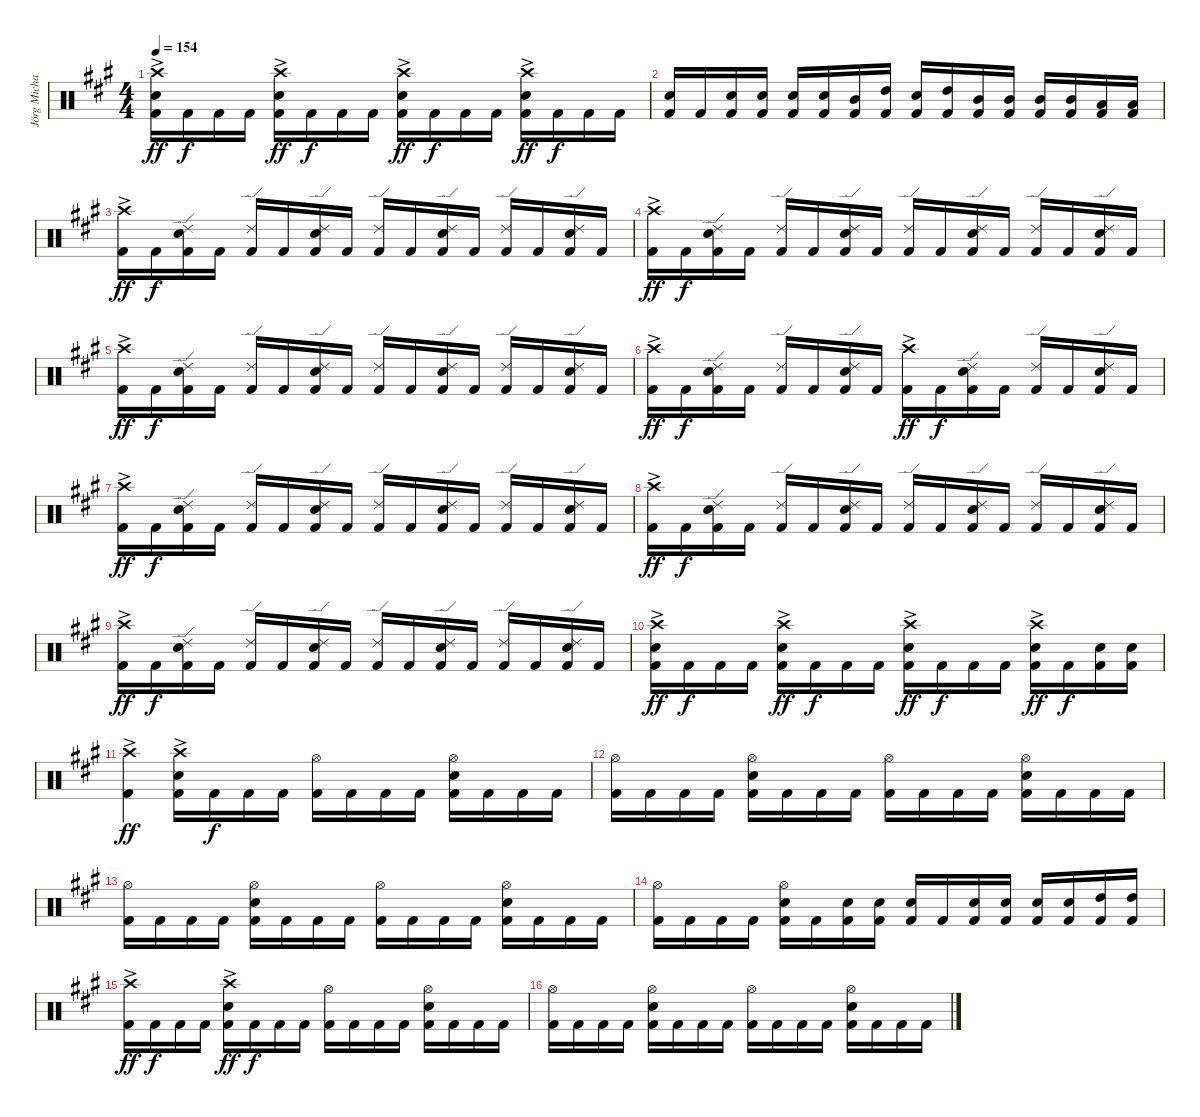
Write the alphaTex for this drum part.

\track ("Jörg Michael" "Jörg Micha") {instrument percussion}
\staff {score}
\articulation defaults
\ts (4 4)
\tempo 154
\clef neutral
\ks a
("Crash high (hit)"{ac} "Kick (hit) 2"{ac} "Electric Snare (hit)"{ac}).16{dy ff} "Kick (hit) 2".16{dy f} "Kick (hit) 2".16 "Kick (hit) 2".16 ("Electric Snare (hit)"{ac} "Kick (hit) 2"{ac} "Crash high (hit)"{ac}).16{dy ff} "Kick (hit) 2".16{dy f} "Kick (hit) 2".16 "Kick (hit) 2".16 ("Electric Snare (hit)"{ac} "Kick (hit) 2"{ac} "Crash high (hit)"{ac}).16{dy ff} "Kick (hit) 2".16{dy f} "Kick (hit) 2".16 "Kick (hit) 2".16 ("Electric Snare (hit)"{ac} "Kick (hit) 2"{ac} "Crash high (hit)"{ac}).16{dy ff} "Kick (hit) 2".16{dy f} "Kick (hit) 2".16 "Kick (hit) 2".16 |
("Electric Snare (hit)" "Kick (hit) 2").16 "Kick (hit) 2".16 ("Electric Snare (hit)" "Kick (hit) 2").16 ("Electric Snare (hit)" "Kick (hit) 2").16 ("Electric Snare (hit)" "Kick (hit) 2").16 ("Electric Snare (hit)" "Kick (hit) 2").16 ("Mid Tom (hit)" "Kick (hit) 2").16 ("High Tom (hit)" "Kick (hit) 2").16 ("Electric Snare (hit)" "Kick (hit) 2").16 ("High Tom (hit)" "Kick (hit) 2").16 ("Mid Tom (hit)" "Kick (hit) 2").16 ("Mid Tom (hit)" "Kick (hit) 2").16 ("Mid Tom (hit)" "Kick (hit) 2").16 ("Mid Tom (hit)" "Kick (hit) 2").16 ("Low Tom (hit)" "Kick (hit) 2").16 ("Low Tom (hit)" "Kick (hit) 2").16 |
("Crash high (hit)"{ac} "Kick (hit) 2"{ac}).16{dy ff} "Kick (hit) 2".16{dy f} ("Ride (edge) 2" "Kick (hit) 2" "Electric Snare (hit)").16 "Kick (hit) 2".16 ("Ride (edge) 2" "Kick (hit) 2").16 "Kick (hit) 2".16 ("Ride (edge) 2" "Kick (hit) 2" "Electric Snare (hit)").16 "Kick (hit) 2".16 ("Kick (hit) 2" "Ride (edge) 2").16 "Kick (hit) 2".16 ("Ride (edge) 2" "Kick (hit) 2" "Electric Snare (hit)").16 "Kick (hit) 2".16 ("Kick (hit) 2" "Ride (edge) 2").16 "Kick (hit) 2".16 ("Ride (edge) 2" "Kick (hit) 2" "Electric Snare (hit)").16 "Kick (hit) 2".16 |
("Crash high (hit)"{ac} "Kick (hit) 2"{ac}).16{dy ff} "Kick (hit) 2".16{dy f} ("Ride (edge) 2" "Kick (hit) 2" "Electric Snare (hit)").16 "Kick (hit) 2".16 ("Ride (edge) 2" "Kick (hit) 2").16 "Kick (hit) 2".16 ("Ride (edge) 2" "Kick (hit) 2" "Electric Snare (hit)").16 "Kick (hit) 2".16 ("Kick (hit) 2" "Ride (edge) 2").16 "Kick (hit) 2".16 ("Ride (edge) 2" "Kick (hit) 2" "Electric Snare (hit)").16 "Kick (hit) 2".16 ("Kick (hit) 2" "Ride (edge) 2").16 "Kick (hit) 2".16 ("Ride (edge) 2" "Kick (hit) 2" "Electric Snare (hit)").16 "Kick (hit) 2".16 |
("Crash high (hit)"{ac} "Kick (hit) 2"{ac}).16{dy ff} "Kick (hit) 2".16{dy f} ("Ride (edge) 2" "Kick (hit) 2" "Electric Snare (hit)").16 "Kick (hit) 2".16 ("Ride (edge) 2" "Kick (hit) 2").16 "Kick (hit) 2".16 ("Ride (edge) 2" "Kick (hit) 2" "Electric Snare (hit)").16 "Kick (hit) 2".16 ("Kick (hit) 2" "Ride (edge) 2").16 "Kick (hit) 2".16 ("Ride (edge) 2" "Kick (hit) 2" "Electric Snare (hit)").16 "Kick (hit) 2".16 ("Kick (hit) 2" "Ride (edge) 2").16 "Kick (hit) 2".16 ("Ride (edge) 2" "Kick (hit) 2" "Electric Snare (hit)").16 "Kick (hit) 2".16 |
("Crash high (hit)"{ac} "Kick (hit) 2"{ac}).16{dy ff} "Kick (hit) 2".16{dy f} ("Ride (edge) 2" "Kick (hit) 2" "Electric Snare (hit)").16 "Kick (hit) 2".16 ("Ride (edge) 2" "Kick (hit) 2").16 "Kick (hit) 2".16 ("Ride (edge) 2" "Kick (hit) 2" "Electric Snare (hit)").16 "Kick (hit) 2".16 ("Kick (hit) 2"{ac} "Crash high (hit)"{ac}).16{dy ff} "Kick (hit) 2".16{dy f} ("Ride (edge) 2" "Kick (hit) 2" "Electric Snare (hit)").16 "Kick (hit) 2".16 ("Kick (hit) 2" "Ride (edge) 2").16 "Kick (hit) 2".16 ("Ride (edge) 2" "Kick (hit) 2" "Electric Snare (hit)").16 "Kick (hit) 2".16 |
("Crash high (hit)"{ac} "Kick (hit) 2"{ac}).16{dy ff} "Kick (hit) 2".16{dy f} ("Ride (edge) 2" "Kick (hit) 2" "Electric Snare (hit)").16 "Kick (hit) 2".16 ("Ride (edge) 2" "Kick (hit) 2").16 "Kick (hit) 2".16 ("Ride (edge) 2" "Kick (hit) 2" "Electric Snare (hit)").16 "Kick (hit) 2".16 ("Kick (hit) 2" "Ride (edge) 2").16 "Kick (hit) 2".16 ("Ride (edge) 2" "Kick (hit) 2" "Electric Snare (hit)").16 "Kick (hit) 2".16 ("Kick (hit) 2" "Ride (edge) 2").16 "Kick (hit) 2".16 ("Ride (edge) 2" "Kick (hit) 2" "Electric Snare (hit)").16 "Kick (hit) 2".16 |
("Crash high (hit)"{ac} "Kick (hit) 2"{ac}).16{dy ff} "Kick (hit) 2".16{dy f} ("Ride (edge) 2" "Kick (hit) 2" "Electric Snare (hit)").16 "Kick (hit) 2".16 ("Ride (edge) 2" "Kick (hit) 2").16 "Kick (hit) 2".16 ("Ride (edge) 2" "Kick (hit) 2" "Electric Snare (hit)").16 "Kick (hit) 2".16 ("Kick (hit) 2" "Ride (edge) 2").16 "Kick (hit) 2".16 ("Ride (edge) 2" "Kick (hit) 2" "Electric Snare (hit)").16 "Kick (hit) 2".16 ("Kick (hit) 2" "Ride (edge) 2").16 "Kick (hit) 2".16 ("Ride (edge) 2" "Kick (hit) 2" "Electric Snare (hit)").16 "Kick (hit) 2".16 |
("Crash high (hit)"{ac} "Kick (hit) 2"{ac}).16{dy ff} "Kick (hit) 2".16{dy f} ("Ride (edge) 2" "Kick (hit) 2" "Electric Snare (hit)").16 "Kick (hit) 2".16 ("Ride (edge) 2" "Kick (hit) 2").16 "Kick (hit) 2".16 ("Ride (edge) 2" "Kick (hit) 2" "Electric Snare (hit)").16 "Kick (hit) 2".16 ("Kick (hit) 2" "Ride (edge) 2").16 "Kick (hit) 2".16 ("Ride (edge) 2" "Kick (hit) 2" "Electric Snare (hit)").16 "Kick (hit) 2".16 ("Kick (hit) 2" "Ride (edge) 2").16 "Kick (hit) 2".16 ("Ride (edge) 2" "Kick (hit) 2" "Electric Snare (hit)").16 "Kick (hit) 2".16 |
("Crash high (hit)"{ac} "Kick (hit) 2"{ac} "Electric Snare (hit)"{ac}).16{dy ff} "Kick (hit) 2".16{dy f} "Kick (hit) 2".16 "Kick (hit) 2".16 ("Electric Snare (hit)"{ac} "Kick (hit) 2"{ac} "Crash high (hit)"{ac}).16{dy ff} "Kick (hit) 2".16{dy f} "Kick (hit) 2".16 "Kick (hit) 2".16 ("Electric Snare (hit)"{ac} "Kick (hit) 2"{ac} "Crash high (hit)"{ac}).16{dy ff} "Kick (hit) 2".16{dy f} "Kick (hit) 2".16 "Kick (hit) 2".16 ("Electric Snare (hit)"{ac} "Kick (hit) 2"{ac} "Crash high (hit)"{ac}).16{dy ff} "Kick (hit) 2".16{dy f} ("Electric Snare (hit)" "Kick (hit) 2").16 ("Electric Snare (hit)" "Kick (hit) 2").16 |
("Crash high (hit)"{ac} "Kick (hit) 2"{ac}).4{dy ff} ("Electric Snare (hit)"{ac} "Kick (hit) 2"{ac} "Crash high (hit)"{ac}).16 "Kick (hit) 2".16{dy f} "Kick (hit) 2".16 "Kick (hit) 2".16 ("Kick (hit) 2" "Hi-Hat (open)").16 "Kick (hit) 2".16 "Kick (hit) 2".16 "Kick (hit) 2".16 ("Electric Snare (hit)" "Kick (hit) 2" "Hi-Hat (open)").16 "Kick (hit) 2".16 "Kick (hit) 2".16 "Kick (hit) 2".16 |
("Hi-Hat (open)" "Kick (hit) 2").16 "Kick (hit) 2".16 "Kick (hit) 2".16 "Kick (hit) 2".16 ("Electric Snare (hit)" "Kick (hit) 2" "Hi-Hat (open)").16 "Kick (hit) 2".16 "Kick (hit) 2".16 "Kick (hit) 2".16 ("Kick (hit) 2" "Hi-Hat (open)").16 "Kick (hit) 2".16 "Kick (hit) 2".16 "Kick (hit) 2".16 ("Electric Snare (hit)" "Kick (hit) 2" "Hi-Hat (open)").16 "Kick (hit) 2".16 "Kick (hit) 2".16 "Kick (hit) 2".16 |
("Hi-Hat (open)" "Kick (hit) 2").16 "Kick (hit) 2".16 "Kick (hit) 2".16 "Kick (hit) 2".16 ("Electric Snare (hit)" "Kick (hit) 2" "Hi-Hat (open)").16 "Kick (hit) 2".16 "Kick (hit) 2".16 "Kick (hit) 2".16 ("Kick (hit) 2" "Hi-Hat (open)").16 "Kick (hit) 2".16 "Kick (hit) 2".16 "Kick (hit) 2".16 ("Electric Snare (hit)" "Kick (hit) 2" "Hi-Hat (open)").16 "Kick (hit) 2".16 "Kick (hit) 2".16 "Kick (hit) 2".16 |
("Hi-Hat (open)" "Kick (hit) 2").16 "Kick (hit) 2".16 "Kick (hit) 2".16 "Kick (hit) 2".16 ("Electric Snare (hit)" "Kick (hit) 2" "Hi-Hat (open)").16 "Kick (hit) 2".16 ("Kick (hit) 2" "Electric Snare (hit)").16 ("Kick (hit) 2" "Electric Snare (hit)").16 ("Kick (hit) 2" "Electric Snare (hit)").16 "Kick (hit) 2".16 ("Kick (hit) 2" "Electric Snare (hit)").16 ("Kick (hit) 2" "Electric Snare (hit)").16 ("Electric Snare (hit)" "Kick (hit) 2").16 ("Kick (hit) 2" "Electric Snare (hit)").16 ("Kick (hit) 2" "High Tom (hit)").16 ("Kick (hit) 2" "High Tom (hit)").16 |
("Crash high (hit)"{ac} "Kick (hit) 2"{ac}).16{dy ff} "Kick (hit) 2".16{dy f} "Kick (hit) 2".16 "Kick (hit) 2".16 ("Electric Snare (hit)"{ac} "Kick (hit) 2"{ac} "Crash high (hit)"{ac}).16{dy ff} "Kick (hit) 2".16{dy f} "Kick (hit) 2".16 "Kick (hit) 2".16 ("Kick (hit) 2" "Hi-Hat (open)").16 "Kick (hit) 2".16 "Kick (hit) 2".16 "Kick (hit) 2".16 ("Electric Snare (hit)" "Kick (hit) 2" "Hi-Hat (open)").16 "Kick (hit) 2".16 "Kick (hit) 2".16 "Kick (hit) 2".16 |
("Hi-Hat (open)" "Kick (hit) 2").16 "Kick (hit) 2".16 "Kick (hit) 2".16 "Kick (hit) 2".16 ("Electric Snare (hit)" "Kick (hit) 2" "Hi-Hat (open)").16 "Kick (hit) 2".16 "Kick (hit) 2".16 "Kick (hit) 2".16 ("Kick (hit) 2" "Hi-Hat (open)").16 "Kick (hit) 2".16 "Kick (hit) 2".16 "Kick (hit) 2".16 ("Electric Snare (hit)" "Kick (hit) 2" "Hi-Hat (open)").16 "Kick (hit) 2".16 "Kick (hit) 2".16 "Kick (hit) 2".16
